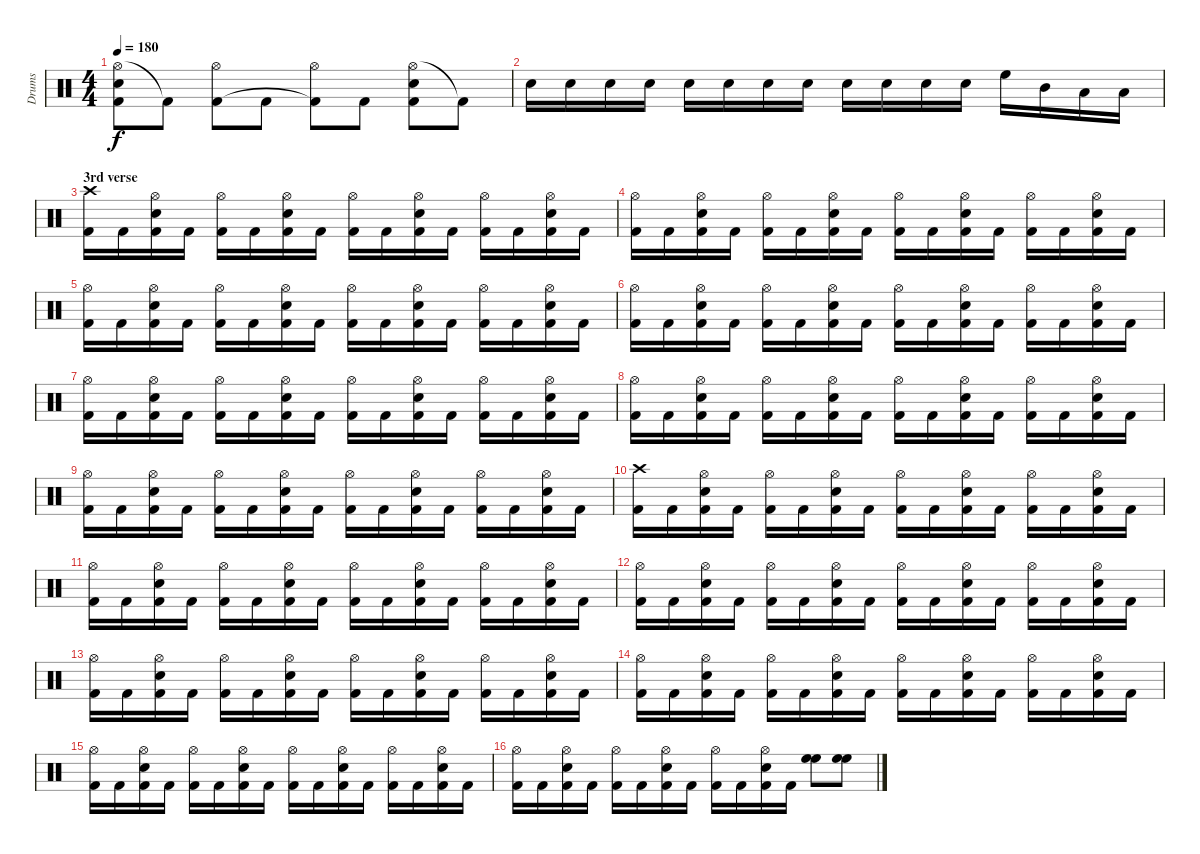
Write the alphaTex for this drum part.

\track ("Drums" "Drums") {instrument percussion}
\staff {score}
\articulation defaults
\ts (4 4)
\tempo 180
\clef neutral
\ks c
("Hi-Hat (open)" "Snare (hit) 2" "Kick (hit) 2").8{dy f} "Kick (hit) 2"{t}.8 ("Hi-Hat (open)" "Kick (hit) 2").8 "Kick (hit) 2".8 ("Hi-Hat (open)" "Kick (hit) 2"{t}).8 "Kick (hit) 2".8 ("Hi-Hat (open)" "Snare (hit) 2" "Kick (hit) 2").8 "Kick (hit) 2"{t}.8 |
"Snare (hit) 2".16 "Snare (hit) 2".16 "Snare (hit) 2".16 "Snare (hit) 2".16 "Snare (hit) 2".16 "Snare (hit) 2".16 "Snare (hit) 2".16 "Snare (hit) 2".16 "Snare (hit) 2".16 "Snare (hit) 2".16 "Snare (hit) 2".16 "Snare (hit) 2".16 "High Floor Tom (hit)".16 "Mid Tom (hit)".16 "Low Tom (hit)".16 "Low Floor Tom (hit)".16 |
\section ("" "3rd verse")
("Crash high (hit)" "Kick (hit) 2").16 "Kick (hit) 2".16 ("Hi-Hat (open)" "Snare (hit) 2" "Kick (hit) 2").16 "Kick (hit) 2".16 ("Hi-Hat (open)" "Kick (hit) 2").16 "Kick (hit) 2".16 ("Hi-Hat (open)" "Snare (hit) 2" "Kick (hit) 2").16 "Kick (hit) 2".16 ("Hi-Hat (open)" "Kick (hit) 2").16 "Kick (hit) 2".16 ("Hi-Hat (open)" "Snare (hit) 2" "Kick (hit) 2").16 "Kick (hit) 2".16 ("Hi-Hat (open)" "Kick (hit) 2").16 "Kick (hit) 2".16 ("Hi-Hat (open)" "Snare (hit) 2" "Kick (hit) 2").16 "Kick (hit) 2".16 |
("Hi-Hat (open)" "Kick (hit) 2").16 "Kick (hit) 2".16 ("Hi-Hat (open)" "Snare (hit) 2" "Kick (hit) 2").16 "Kick (hit) 2".16 ("Hi-Hat (open)" "Kick (hit) 2").16 "Kick (hit) 2".16 ("Hi-Hat (open)" "Snare (hit) 2" "Kick (hit) 2").16 "Kick (hit) 2".16 ("Hi-Hat (open)" "Kick (hit) 2").16 "Kick (hit) 2".16 ("Hi-Hat (open)" "Snare (hit) 2" "Kick (hit) 2").16 "Kick (hit) 2".16 ("Hi-Hat (open)" "Kick (hit) 2").16 "Kick (hit) 2".16 ("Hi-Hat (open)" "Snare (hit) 2" "Kick (hit) 2").16 "Kick (hit) 2".16 |
("Hi-Hat (open)" "Kick (hit) 2").16 "Kick (hit) 2".16 ("Hi-Hat (open)" "Snare (hit) 2" "Kick (hit) 2").16 "Kick (hit) 2".16 ("Hi-Hat (open)" "Kick (hit) 2").16 "Kick (hit) 2".16 ("Hi-Hat (open)" "Snare (hit) 2" "Kick (hit) 2").16 "Kick (hit) 2".16 ("Hi-Hat (open)" "Kick (hit) 2").16 "Kick (hit) 2".16 ("Hi-Hat (open)" "Snare (hit) 2" "Kick (hit) 2").16 "Kick (hit) 2".16 ("Hi-Hat (open)" "Kick (hit) 2").16 "Kick (hit) 2".16 ("Hi-Hat (open)" "Snare (hit) 2" "Kick (hit) 2").16 "Kick (hit) 2".16 |
("Hi-Hat (open)" "Kick (hit) 2").16 "Kick (hit) 2".16 ("Hi-Hat (open)" "Snare (hit) 2" "Kick (hit) 2").16 "Kick (hit) 2".16 ("Hi-Hat (open)" "Kick (hit) 2").16 "Kick (hit) 2".16 ("Hi-Hat (open)" "Snare (hit) 2" "Kick (hit) 2").16 "Kick (hit) 2".16 ("Hi-Hat (open)" "Kick (hit) 2").16 "Kick (hit) 2".16 ("Hi-Hat (open)" "Snare (hit) 2" "Kick (hit) 2").16 "Kick (hit) 2".16 ("Hi-Hat (open)" "Kick (hit) 2").16 "Kick (hit) 2".16 ("Hi-Hat (open)" "Snare (hit) 2" "Kick (hit) 2").16 "Kick (hit) 2".16 |
("Hi-Hat (open)" "Kick (hit) 2").16 "Kick (hit) 2".16 ("Hi-Hat (open)" "Snare (hit) 2" "Kick (hit) 2").16 "Kick (hit) 2".16 ("Hi-Hat (open)" "Kick (hit) 2").16 "Kick (hit) 2".16 ("Hi-Hat (open)" "Snare (hit) 2" "Kick (hit) 2").16 "Kick (hit) 2".16 ("Hi-Hat (open)" "Kick (hit) 2").16 "Kick (hit) 2".16 ("Hi-Hat (open)" "Snare (hit) 2" "Kick (hit) 2").16 "Kick (hit) 2".16 ("Hi-Hat (open)" "Kick (hit) 2").16 "Kick (hit) 2".16 ("Hi-Hat (open)" "Snare (hit) 2" "Kick (hit) 2").16 "Kick (hit) 2".16 |
("Hi-Hat (open)" "Kick (hit) 2").16 "Kick (hit) 2".16 ("Hi-Hat (open)" "Snare (hit) 2" "Kick (hit) 2").16 "Kick (hit) 2".16 ("Hi-Hat (open)" "Kick (hit) 2").16 "Kick (hit) 2".16 ("Hi-Hat (open)" "Snare (hit) 2" "Kick (hit) 2").16 "Kick (hit) 2".16 ("Hi-Hat (open)" "Kick (hit) 2").16 "Kick (hit) 2".16 ("Hi-Hat (open)" "Snare (hit) 2" "Kick (hit) 2").16 "Kick (hit) 2".16 ("Hi-Hat (open)" "Kick (hit) 2").16 "Kick (hit) 2".16 ("Hi-Hat (open)" "Snare (hit) 2" "Kick (hit) 2").16 "Kick (hit) 2".16 |
("Hi-Hat (open)" "Kick (hit) 2").16 "Kick (hit) 2".16 ("Hi-Hat (open)" "Snare (hit) 2" "Kick (hit) 2").16 "Kick (hit) 2".16 ("Hi-Hat (open)" "Kick (hit) 2").16 "Kick (hit) 2".16 ("Hi-Hat (open)" "Snare (hit) 2" "Kick (hit) 2").16 "Kick (hit) 2".16 ("Hi-Hat (open)" "Kick (hit) 2").16 "Kick (hit) 2".16 ("Hi-Hat (open)" "Snare (hit) 2" "Kick (hit) 2").16 "Kick (hit) 2".16 ("Hi-Hat (open)" "Kick (hit) 2").16 "Kick (hit) 2".16 ("Hi-Hat (open)" "Snare (hit) 2" "Kick (hit) 2").16 "Kick (hit) 2".16 |
("Crash high (hit)" "Kick (hit) 2").16 "Kick (hit) 2".16 ("Hi-Hat (open)" "Snare (hit) 2" "Kick (hit) 2").16 "Kick (hit) 2".16 ("Hi-Hat (open)" "Kick (hit) 2").16 "Kick (hit) 2".16 ("Hi-Hat (open)" "Snare (hit) 2" "Kick (hit) 2").16 "Kick (hit) 2".16 ("Hi-Hat (open)" "Kick (hit) 2").16 "Kick (hit) 2".16 ("Hi-Hat (open)" "Snare (hit) 2" "Kick (hit) 2").16 "Kick (hit) 2".16 ("Hi-Hat (open)" "Kick (hit) 2").16 "Kick (hit) 2".16 ("Hi-Hat (open)" "Snare (hit) 2" "Kick (hit) 2").16 "Kick (hit) 2".16 |
("Hi-Hat (open)" "Kick (hit) 2").16 "Kick (hit) 2".16 ("Hi-Hat (open)" "Snare (hit) 2" "Kick (hit) 2").16 "Kick (hit) 2".16 ("Hi-Hat (open)" "Kick (hit) 2").16 "Kick (hit) 2".16 ("Hi-Hat (open)" "Snare (hit) 2" "Kick (hit) 2").16 "Kick (hit) 2".16 ("Hi-Hat (open)" "Kick (hit) 2").16 "Kick (hit) 2".16 ("Hi-Hat (open)" "Snare (hit) 2" "Kick (hit) 2").16 "Kick (hit) 2".16 ("Hi-Hat (open)" "Kick (hit) 2").16 "Kick (hit) 2".16 ("Hi-Hat (open)" "Snare (hit) 2" "Kick (hit) 2").16 "Kick (hit) 2".16 |
("Hi-Hat (open)" "Kick (hit) 2").16 "Kick (hit) 2".16 ("Hi-Hat (open)" "Snare (hit) 2" "Kick (hit) 2").16 "Kick (hit) 2".16 ("Hi-Hat (open)" "Kick (hit) 2").16 "Kick (hit) 2".16 ("Hi-Hat (open)" "Snare (hit) 2" "Kick (hit) 2").16 "Kick (hit) 2".16 ("Hi-Hat (open)" "Kick (hit) 2").16 "Kick (hit) 2".16 ("Hi-Hat (open)" "Snare (hit) 2" "Kick (hit) 2").16 "Kick (hit) 2".16 ("Hi-Hat (open)" "Kick (hit) 2").16 "Kick (hit) 2".16 ("Hi-Hat (open)" "Snare (hit) 2" "Kick (hit) 2").16 "Kick (hit) 2".16 |
("Hi-Hat (open)" "Kick (hit) 2").16 "Kick (hit) 2".16 ("Hi-Hat (open)" "Snare (hit) 2" "Kick (hit) 2").16 "Kick (hit) 2".16 ("Hi-Hat (open)" "Kick (hit) 2").16 "Kick (hit) 2".16 ("Hi-Hat (open)" "Snare (hit) 2" "Kick (hit) 2").16 "Kick (hit) 2".16 ("Hi-Hat (open)" "Kick (hit) 2").16 "Kick (hit) 2".16 ("Hi-Hat (open)" "Snare (hit) 2" "Kick (hit) 2").16 "Kick (hit) 2".16 ("Hi-Hat (open)" "Kick (hit) 2").16 "Kick (hit) 2".16 ("Hi-Hat (open)" "Snare (hit) 2" "Kick (hit) 2").16 "Kick (hit) 2".16 |
("Hi-Hat (open)" "Kick (hit) 2").16 "Kick (hit) 2".16 ("Hi-Hat (open)" "Snare (hit) 2" "Kick (hit) 2").16 "Kick (hit) 2".16 ("Hi-Hat (open)" "Kick (hit) 2").16 "Kick (hit) 2".16 ("Hi-Hat (open)" "Snare (hit) 2" "Kick (hit) 2").16 "Kick (hit) 2".16 ("Hi-Hat (open)" "Kick (hit) 2").16 "Kick (hit) 2".16 ("Hi-Hat (open)" "Snare (hit) 2" "Kick (hit) 2").16 "Kick (hit) 2".16 ("Hi-Hat (open)" "Kick (hit) 2").16 "Kick (hit) 2".16 ("Hi-Hat (open)" "Snare (hit) 2" "Kick (hit) 2").16 "Kick (hit) 2".16 |
("Hi-Hat (open)" "Kick (hit) 2").16 "Kick (hit) 2".16 ("Hi-Hat (open)" "Snare (hit) 2" "Kick (hit) 2").16 "Kick (hit) 2".16 ("Hi-Hat (open)" "Kick (hit) 2").16 "Kick (hit) 2".16 ("Hi-Hat (open)" "Snare (hit) 2" "Kick (hit) 2").16 "Kick (hit) 2".16 ("Hi-Hat (open)" "Kick (hit) 2").16 "Kick (hit) 2".16 ("Hi-Hat (open)" "Snare (hit) 2" "Kick (hit) 2").16 "Kick (hit) 2".16 ("Hi-Hat (open)" "Kick (hit) 2").16 "Kick (hit) 2".16 ("Hi-Hat (open)" "Snare (hit) 2" "Kick (hit) 2").16 "Kick (hit) 2".16 |
("Hi-Hat (open)" "Kick (hit) 2").16 "Kick (hit) 2".16 ("Hi-Hat (open)" "Snare (hit) 2" "Kick (hit) 2").16 "Kick (hit) 2".16 ("Hi-Hat (open)" "Kick (hit) 2").16 "Kick (hit) 2".16 ("Hi-Hat (open)" "Snare (hit) 2" "Kick (hit) 2").16 "Kick (hit) 2".16 ("Hi-Hat (open)" "Kick (hit) 2").16 "Kick (hit) 2".16 ("Hi-Hat (open)" "Snare (hit) 2" "Kick (hit) 2").16 "Kick (hit) 2".16 ("High Floor Tom (hit)" "High Floor Tom (hit)").8 ("High Floor Tom (hit)" "High Floor Tom (hit)").8
